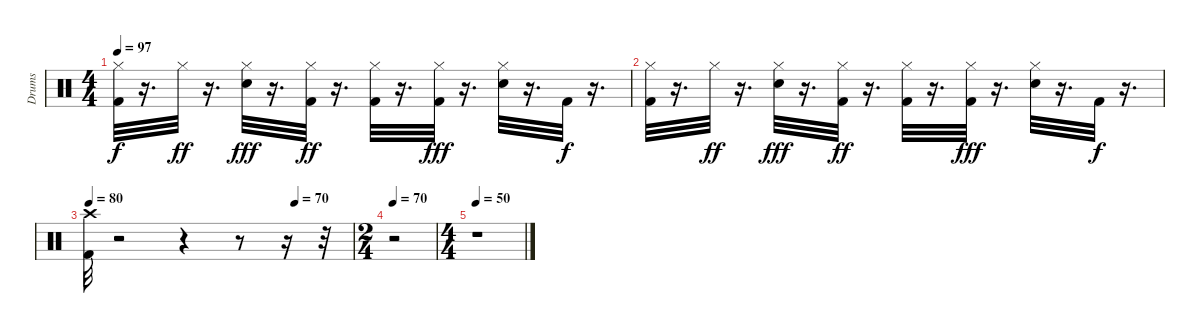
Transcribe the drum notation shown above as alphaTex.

\track ("Drums" "Drums") {instrument percussion}
\staff {score}
\articulation defaults
\ts (4 4)
\tempo 97
\clef neutral
\ks c
("Hi-Hat (closed)" "Kick (hit) 2").32{dy f} r.16{d} "Hi-Hat (closed)".32{dy ff} r.16{d} ("Hi-Hat (closed)" "Electric Snare (hit)").32{dy fff} r.16{d} ("Hi-Hat (closed)" "Kick (hit) 2").32{dy ff} r.16{d} ("Hi-Hat (closed)" "Kick (hit) 2").32 r.16{d} ("Hi-Hat (closed)" "Kick (hit) 2").32{dy fff} r.16{d} ("Hi-Hat (closed)" "Electric Snare (hit)").32 r.16{d} "Kick (hit) 2".32{dy f} r.16{d} |
("Hi-Hat (closed)" "Kick (hit) 2").32 r.16{d} "Hi-Hat (closed)".32{dy ff} r.16{d} ("Hi-Hat (closed)" "Electric Snare (hit)").32{dy fff} r.16{d} ("Hi-Hat (closed)" "Kick (hit) 2").32{dy ff} r.16{d} ("Hi-Hat (closed)" "Kick (hit) 2").32 r.16{d} ("Hi-Hat (closed)" "Kick (hit) 2").32{dy fff} r.16{d} ("Hi-Hat (closed)" "Electric Snare (hit)").32 r.16{d} "Kick (hit) 2".32{dy f} r.16{d} |
\tempo 80
\tempo (70 0.78125)
("Crash high (hit)" "Kick (hit) 2").32 r.2 r.4 r.8 r.16 r.32 |
\ts (2 4)
\tempo 70
r.2 |
\ts (4 4)
\tempo 50
r.1
